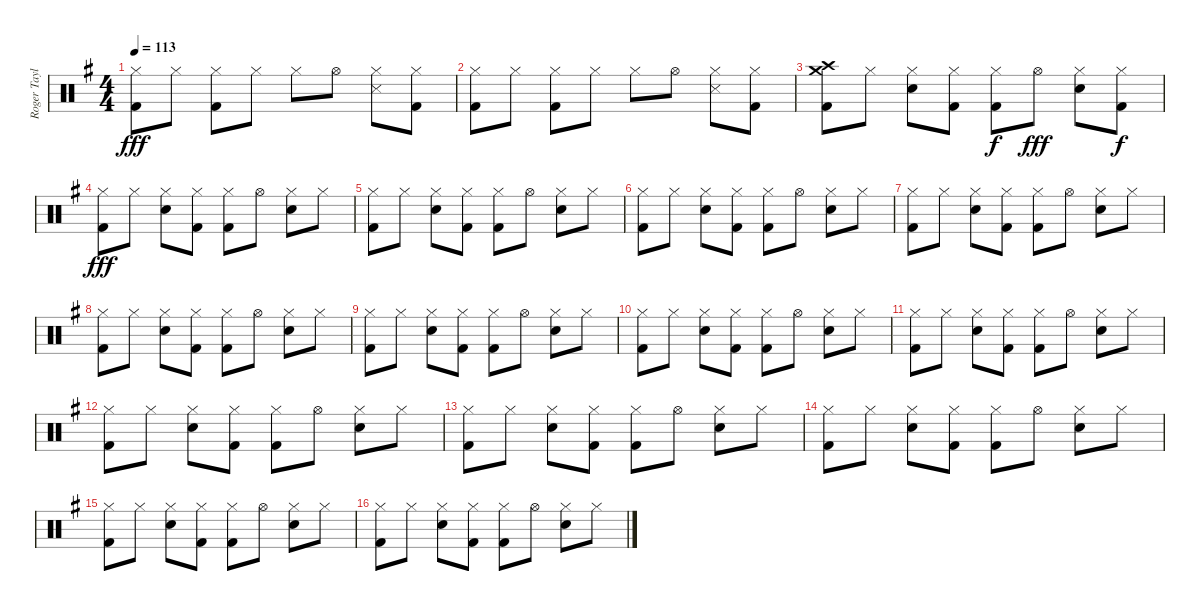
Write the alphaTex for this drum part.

\track ("Roger Taylor" "Roger Tayl") {instrument percussion}
\staff {score}
\articulation defaults
\ts (4 4)
\tempo 113
\clef neutral
\ks g
("Hi-Hat (closed)" "Kick (hit) 2").8{dy fff} "Hi-Hat (closed)".8 ("Hi-Hat (closed)" "Kick (hit) 2").8 "Hi-Hat (closed)".8 "Hi-Hat (closed)".8 "Hi-Hat (open)".8 ("Hi-Hat (closed)" "Snare (side stick) 3").8 ("Hi-Hat (closed)" "Kick (hit) 2").8 |
("Hi-Hat (closed)" "Kick (hit) 2").8 "Hi-Hat (closed)".8 ("Hi-Hat (closed)" "Kick (hit) 2").8 "Hi-Hat (closed)".8 "Hi-Hat (closed)".8 "Hi-Hat (open)".8 ("Hi-Hat (closed)" "Snare (side stick) 3").8 ("Hi-Hat (closed)" "Kick (hit) 2").8 |
("Crash high (hit)" "Crash medium (hit)" "Kick (hit) 2").8 "Hi-Hat (closed)".8 ("Hi-Hat (closed)" "Snare (hit) 2").8 ("Hi-Hat (closed)" "Kick (hit) 2").8 ("Hi-Hat (closed)" "Kick (hit) 2").8{dy f} "Hi-Hat (open)".8{dy fff} ("Hi-Hat (closed)" "Snare (hit) 2").8 ("Hi-Hat (closed)" "Kick (hit) 2").8{dy f} |
("Hi-Hat (closed)" "Kick (hit) 2").8{dy fff} "Hi-Hat (closed)".8 ("Hi-Hat (closed)" "Snare (hit) 2").8 ("Hi-Hat (closed)" "Kick (hit) 2").8 ("Hi-Hat (closed)" "Kick (hit) 2").8 "Hi-Hat (open)".8 ("Hi-Hat (closed)" "Snare (hit) 2").8 "Hi-Hat (closed)".8 |
("Hi-Hat (closed)" "Kick (hit) 2").8 "Hi-Hat (closed)".8 ("Hi-Hat (closed)" "Snare (hit) 2").8 ("Hi-Hat (closed)" "Kick (hit) 2").8 ("Hi-Hat (closed)" "Kick (hit) 2").8 "Hi-Hat (open)".8 ("Hi-Hat (closed)" "Snare (hit) 2").8 "Hi-Hat (closed)".8 |
("Hi-Hat (closed)" "Kick (hit) 2").8 "Hi-Hat (closed)".8 ("Hi-Hat (closed)" "Snare (hit) 2").8 ("Hi-Hat (closed)" "Kick (hit) 2").8 ("Hi-Hat (closed)" "Kick (hit) 2").8 "Hi-Hat (open)".8 ("Hi-Hat (closed)" "Snare (hit) 2").8 "Hi-Hat (closed)".8 |
("Hi-Hat (closed)" "Kick (hit) 2").8 "Hi-Hat (closed)".8 ("Hi-Hat (closed)" "Snare (hit) 2").8 ("Hi-Hat (closed)" "Kick (hit) 2").8 ("Hi-Hat (closed)" "Kick (hit) 2").8 "Hi-Hat (open)".8 ("Hi-Hat (closed)" "Snare (hit) 2").8 "Hi-Hat (closed)".8 |
("Hi-Hat (closed)" "Kick (hit) 2").8 "Hi-Hat (closed)".8 ("Hi-Hat (closed)" "Snare (hit) 2").8 ("Hi-Hat (closed)" "Kick (hit) 2").8 ("Hi-Hat (closed)" "Kick (hit) 2").8 "Hi-Hat (open)".8 ("Hi-Hat (closed)" "Snare (hit) 2").8 "Hi-Hat (closed)".8 |
("Hi-Hat (closed)" "Kick (hit) 2").8 "Hi-Hat (closed)".8 ("Hi-Hat (closed)" "Snare (hit) 2").8 ("Hi-Hat (closed)" "Kick (hit) 2").8 ("Hi-Hat (closed)" "Kick (hit) 2").8 "Hi-Hat (open)".8 ("Hi-Hat (closed)" "Snare (hit) 2").8 "Hi-Hat (closed)".8 |
("Hi-Hat (closed)" "Kick (hit) 2").8 "Hi-Hat (closed)".8 ("Hi-Hat (closed)" "Snare (hit) 2").8 ("Hi-Hat (closed)" "Kick (hit) 2").8 ("Hi-Hat (closed)" "Kick (hit) 2").8 "Hi-Hat (open)".8 ("Hi-Hat (closed)" "Snare (hit) 2").8 "Hi-Hat (closed)".8 |
("Hi-Hat (closed)" "Kick (hit) 2").8 "Hi-Hat (closed)".8 ("Hi-Hat (closed)" "Snare (hit) 2").8 ("Hi-Hat (closed)" "Kick (hit) 2").8 ("Hi-Hat (closed)" "Kick (hit) 2").8 "Hi-Hat (open)".8 ("Hi-Hat (closed)" "Snare (hit) 2").8 "Hi-Hat (closed)".8 |
("Hi-Hat (closed)" "Kick (hit) 2").8 "Hi-Hat (closed)".8 ("Hi-Hat (closed)" "Snare (hit) 2").8 ("Hi-Hat (closed)" "Kick (hit) 2").8 ("Hi-Hat (closed)" "Kick (hit) 2").8 "Hi-Hat (open)".8 ("Hi-Hat (closed)" "Snare (hit) 2").8 "Hi-Hat (closed)".8 |
("Hi-Hat (closed)" "Kick (hit) 2").8 "Hi-Hat (closed)".8 ("Hi-Hat (closed)" "Snare (hit) 2").8 ("Hi-Hat (closed)" "Kick (hit) 2").8 ("Hi-Hat (closed)" "Kick (hit) 2").8 "Hi-Hat (open)".8 ("Hi-Hat (closed)" "Snare (hit) 2").8 "Hi-Hat (closed)".8 |
("Hi-Hat (closed)" "Kick (hit) 2").8 "Hi-Hat (closed)".8 ("Hi-Hat (closed)" "Snare (hit) 2").8 ("Hi-Hat (closed)" "Kick (hit) 2").8 ("Hi-Hat (closed)" "Kick (hit) 2").8 "Hi-Hat (open)".8 ("Hi-Hat (closed)" "Snare (hit) 2").8 "Hi-Hat (closed)".8 |
("Hi-Hat (closed)" "Kick (hit) 2").8 "Hi-Hat (closed)".8 ("Hi-Hat (closed)" "Snare (hit) 2").8 ("Hi-Hat (closed)" "Kick (hit) 2").8 ("Hi-Hat (closed)" "Kick (hit) 2").8 "Hi-Hat (open)".8 ("Hi-Hat (closed)" "Snare (hit) 2").8 "Hi-Hat (closed)".8 |
("Hi-Hat (closed)" "Kick (hit) 2").8 "Hi-Hat (closed)".8 ("Hi-Hat (closed)" "Snare (hit) 2").8 ("Hi-Hat (closed)" "Kick (hit) 2").8 ("Hi-Hat (closed)" "Kick (hit) 2").8 "Hi-Hat (open)".8 ("Hi-Hat (closed)" "Snare (hit) 2").8 "Hi-Hat (closed)".8
